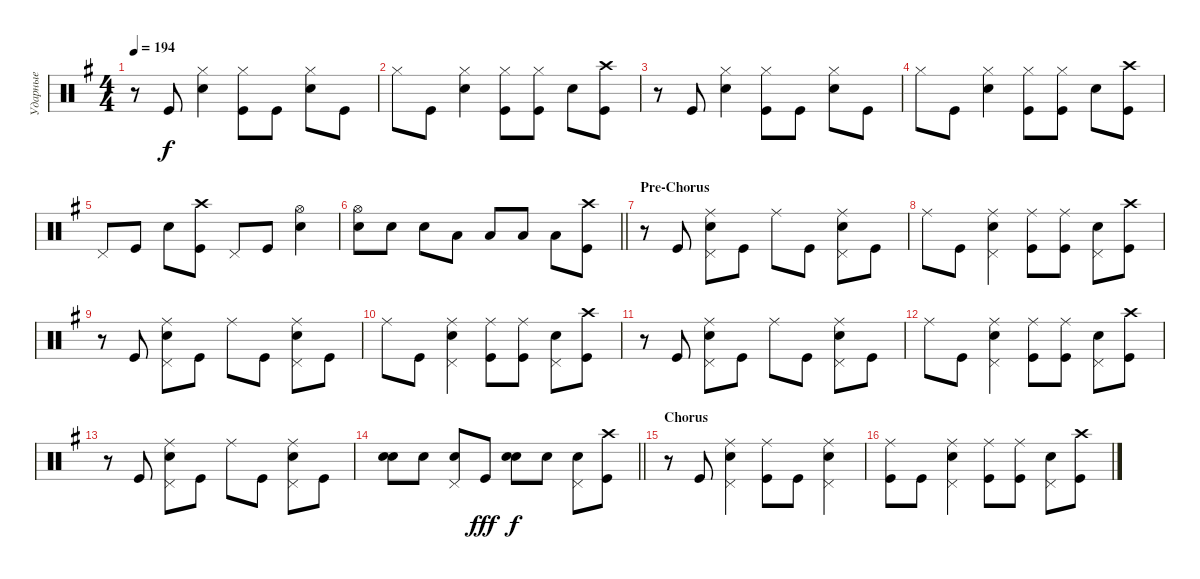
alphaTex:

\track ("Ударные" "Ударные") {instrument percussion}
\staff {score}
\articulation defaults
\ts (4 4)
\tempo 194
\clef neutral
\ks eminor
r.8{dy f} "Kick (hit)".8 ("Snare (hit) 2" "Hi-Hat (closed)").4 ("Kick (hit)" "Hi-Hat (closed)").8 "Kick (hit)".8 ("Snare (hit) 2" "Hi-Hat (closed)").8 "Kick (hit)".8 |
"Hi-Hat (closed)".8 "Kick (hit)".8 ("Snare (hit) 2" "Hi-Hat (closed)").4 ("Kick (hit)" "Hi-Hat (closed)").8 ("Kick (hit)" "Hi-Hat (closed)").8 "Snare (hit) 2".8 ("Kick (hit)" "Crash high (hit)").8 |
r.8 "Kick (hit)".8 ("Snare (hit) 2" "Hi-Hat (closed)").4 ("Kick (hit)" "Hi-Hat (closed)").8 "Kick (hit)".8 ("Snare (hit) 2" "Hi-Hat (closed)").8 "Kick (hit)".8 |
"Hi-Hat (closed)".8 "Kick (hit)".8 ("Snare (hit) 2" "Hi-Hat (closed)").4 ("Kick (hit)" "Hi-Hat (closed)").8 ("Kick (hit)" "Hi-Hat (closed)").8 "Snare (hit) 2".8 ("Kick (hit)" "Crash high (hit)").8 |
"Pedal Hi-Hat (hit)".8 "Kick (hit)".8 "Snare (hit) 2".8 ("Kick (hit)" "Crash high (hit)").8 "Pedal Hi-Hat (hit)".8 "Kick (hit)".8 ("Snare (hit) 2" "Hi-Hat (open)").4 |
\barLineRight lightlight
("Snare (hit) 2" "Hi-Hat (open)").8 "Snare (hit) 2".8 "Snare (hit) 2".8 "Low Tom (hit)".8 "Low Tom (hit)".8 "Low Tom (hit)".8 "Low Tom (hit)".8 ("Kick (hit)" "Crash high (hit)").8 |
\section ("" "Pre-Chorus")
r.8 "Kick (hit)".8 ("Snare (hit) 2" "Ride (middle)" "Pedal Hi-Hat (hit)").8 "Kick (hit)".8 "Ride (middle)".8 "Kick (hit)".8 ("Snare (hit) 2" "Ride (middle)" "Pedal Hi-Hat (hit)").8 "Kick (hit)".8 |
"Ride (middle)".8 "Kick (hit)".8 ("Snare (hit) 2" "Ride (middle)" "Pedal Hi-Hat (hit)").4 ("Ride (middle)" "Kick (hit)").8 ("Kick (hit)" "Ride (middle)").8 ("Snare (hit) 2" "Pedal Hi-Hat (hit)").8 ("Kick (hit)" "Crash high (hit)").8 |
r.8 "Kick (hit)".8 ("Snare (hit) 2" "Ride (middle)" "Pedal Hi-Hat (hit)").8 "Kick (hit)".8 "Ride (middle)".8 "Kick (hit)".8 ("Snare (hit) 2" "Ride (middle)" "Pedal Hi-Hat (hit)").8 "Kick (hit)".8 |
"Ride (middle)".8 "Kick (hit)".8 ("Snare (hit) 2" "Ride (middle)" "Pedal Hi-Hat (hit)").4 ("Ride (middle)" "Kick (hit)").8 ("Kick (hit)" "Ride (middle)").8 ("Snare (hit) 2" "Pedal Hi-Hat (hit)").8 ("Kick (hit)" "Crash high (hit)").8 |
r.8 "Kick (hit)".8 ("Snare (hit) 2" "Ride (middle)" "Pedal Hi-Hat (hit)").8 "Kick (hit)".8 "Ride (middle)".8 "Kick (hit)".8 ("Snare (hit) 2" "Ride (middle)" "Pedal Hi-Hat (hit)").8 "Kick (hit)".8 |
"Ride (middle)".8 "Kick (hit)".8 ("Snare (hit) 2" "Ride (middle)" "Pedal Hi-Hat (hit)").4 ("Ride (middle)" "Kick (hit)").8 ("Kick (hit)" "Ride (middle)").8 ("Snare (hit) 2" "Pedal Hi-Hat (hit)").8 ("Kick (hit)" "Crash high (hit)").8 |
r.8 "Kick (hit)".8 ("Snare (hit) 2" "Ride (middle)" "Pedal Hi-Hat (hit)").8 "Kick (hit)".8 "Ride (middle)".8 "Kick (hit)".8 ("Snare (hit) 2" "Ride (middle)" "Pedal Hi-Hat (hit)").8 "Kick (hit)".8 |
\barLineRight lightlight
("Snare (hit) 2" "Snare (hit) 2").8{bd 240} "Snare (hit) 2".8 ("Snare (hit) 2" "Pedal Hi-Hat (hit)").8 "Kick (hit)".8{dy fff} ("Snare (hit) 2" "Snare (hit) 2").8{bd 240 dy f} "Snare (hit) 2".8 ("Snare (hit) 2" "Pedal Hi-Hat (hit)").8 ("Kick (hit)" "Crash high (hit)").8 |
\section ("" "Chorus")
r.8 "Kick (hit)".8 ("Snare (hit) 2" "Ride (middle)" "Pedal Hi-Hat (hit)").4 ("Kick (hit)" "Ride (middle)").8 "Kick (hit)".8 ("Snare (hit) 2" "Ride (middle)" "Pedal Hi-Hat (hit)").4 |
("Kick (hit)" "Ride (middle)").8 "Kick (hit)".8 ("Snare (hit) 2" "Ride (middle)" "Pedal Hi-Hat (hit)").4 ("Kick (hit)" "Ride (middle)").8 ("Kick (hit)" "Ride (middle)").8 ("Snare (hit) 2" "Pedal Hi-Hat (hit)").8 ("Kick (hit)" "Crash high (hit)").8
